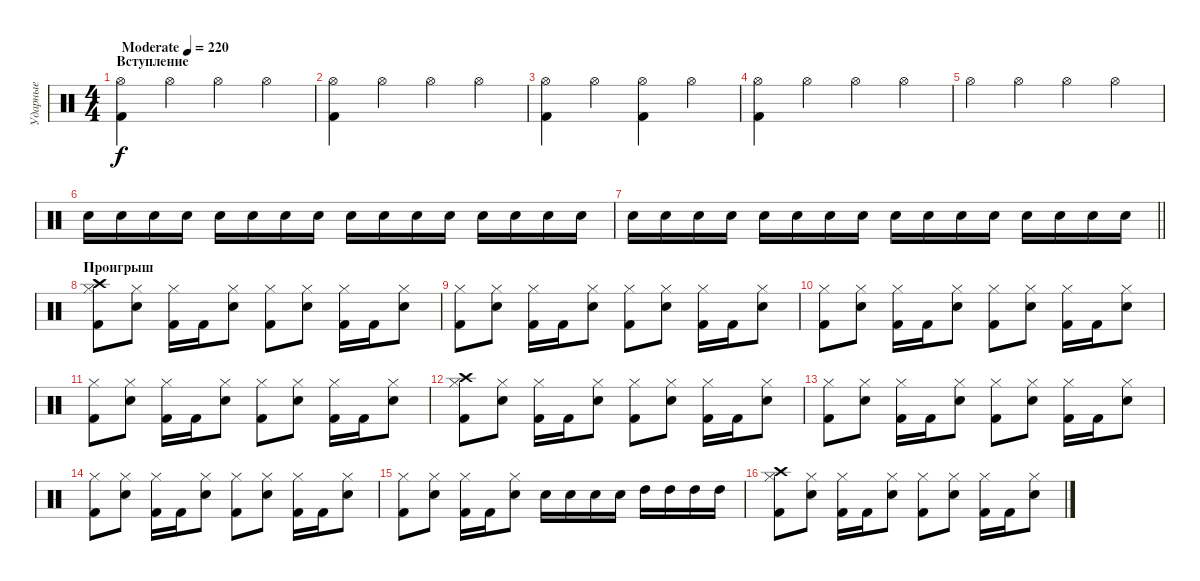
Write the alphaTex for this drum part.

\track ("Ударные" "Ударные") {instrument percussion}
\staff {score}
\articulation defaults
\ts (4 4)
\section ("" "Вступление")
\tempo (220 "Moderate")
\clef neutral
\ks c
("Kick (hit) 2" "Hi-Hat (open)").4{dy f} "Hi-Hat (open)".4 "Hi-Hat (open)".4 "Hi-Hat (open)".4 |
("Kick (hit) 2" "Hi-Hat (open)").4 "Hi-Hat (open)".4 "Hi-Hat (open)".4 "Hi-Hat (open)".4 |
("Kick (hit) 2" "Hi-Hat (open)").4 "Hi-Hat (open)".4 ("Kick (hit) 2" "Hi-Hat (open)").4 "Hi-Hat (open)".4 |
("Kick (hit) 2" "Hi-Hat (open)").4 "Hi-Hat (open)".4 "Hi-Hat (open)".4 "Hi-Hat (open)".4 |
"Hi-Hat (open)".4 "Hi-Hat (open)".4 "Hi-Hat (open)".4 "Hi-Hat (open)".4 |
"Snare (hit) 2".16 "Snare (hit) 2".16 "Snare (hit) 2".16 "Snare (hit) 2".16 "Snare (hit) 2".16 "Snare (hit) 2".16 "Snare (hit) 2".16 "Snare (hit) 2".16 "Snare (hit) 2".16 "Snare (hit) 2".16 "Snare (hit) 2".16 "Snare (hit) 2".16 "Snare (hit) 2".16 "Snare (hit) 2".16 "Snare (hit) 2".16 "Snare (hit) 2".16 |
\barLineRight lightlight "Snare (hit) 2".16 "Snare (hit) 2".16 "Snare (hit) 2".16 "Snare (hit) 2".16 "Snare (hit) 2".16 "Snare (hit) 2".16 "Snare (hit) 2".16 "Snare (hit) 2".16 "Snare (hit) 2".16 "Snare (hit) 2".16 "Snare (hit) 2".16 "Snare (hit) 2".16 "Snare (hit) 2".16 "Snare (hit) 2".16 "Snare (hit) 2".16 "Snare (hit) 2".16
|
\section ("" "Проигрыш")
("Kick (hit) 2" "Hi-Hat (closed)" "Crash high (hit)").8 ("Snare (hit) 2" "Hi-Hat (closed)").8 ("Kick (hit) 2" "Hi-Hat (closed)").16 "Kick (hit) 2".16 ("Snare (hit) 2" "Hi-Hat (closed)").8 ("Kick (hit) 2" "Hi-Hat (closed)").8 ("Snare (hit) 2" "Hi-Hat (closed)").8 ("Kick (hit) 2" "Hi-Hat (closed)").16 "Kick (hit) 2".16 ("Snare (hit) 2" "Hi-Hat (closed)").8 |
("Kick (hit) 2" "Hi-Hat (closed)").8 ("Snare (hit) 2" "Hi-Hat (closed)").8 ("Kick (hit) 2" "Hi-Hat (closed)").16 "Kick (hit) 2".16 ("Snare (hit) 2" "Hi-Hat (closed)").8 ("Kick (hit) 2" "Hi-Hat (closed)").8 ("Snare (hit) 2" "Hi-Hat (closed)").8 ("Kick (hit) 2" "Hi-Hat (closed)").16 "Kick (hit) 2".16 ("Snare (hit) 2" "Hi-Hat (closed)").8 |
("Kick (hit) 2" "Hi-Hat (closed)").8 ("Snare (hit) 2" "Hi-Hat (closed)").8 ("Kick (hit) 2" "Hi-Hat (closed)").16 "Kick (hit) 2".16 ("Snare (hit) 2" "Hi-Hat (closed)").8 ("Kick (hit) 2" "Hi-Hat (closed)").8 ("Snare (hit) 2" "Hi-Hat (closed)").8 ("Kick (hit) 2" "Hi-Hat (closed)").16 "Kick (hit) 2".16 ("Snare (hit) 2" "Hi-Hat (closed)").8 |
("Kick (hit) 2" "Hi-Hat (closed)").8 ("Snare (hit) 2" "Hi-Hat (closed)").8 ("Kick (hit) 2" "Hi-Hat (closed)").16 "Kick (hit) 2".16 ("Snare (hit) 2" "Hi-Hat (closed)").8 ("Kick (hit) 2" "Hi-Hat (closed)").8 ("Snare (hit) 2" "Hi-Hat (closed)").8 ("Kick (hit) 2" "Hi-Hat (closed)").16 "Kick (hit) 2".16 ("Snare (hit) 2" "Hi-Hat (closed)").8 |
("Kick (hit) 2" "Hi-Hat (closed)" "Crash high (hit)").8 ("Snare (hit) 2" "Hi-Hat (closed)").8 ("Kick (hit) 2" "Hi-Hat (closed)").16 "Kick (hit) 2".16 ("Snare (hit) 2" "Hi-Hat (closed)").8 ("Kick (hit) 2" "Hi-Hat (closed)").8 ("Snare (hit) 2" "Hi-Hat (closed)").8 ("Kick (hit) 2" "Hi-Hat (closed)").16 "Kick (hit) 2".16 ("Snare (hit) 2" "Hi-Hat (closed)").8 |
("Kick (hit) 2" "Hi-Hat (closed)").8 ("Snare (hit) 2" "Hi-Hat (closed)").8 ("Kick (hit) 2" "Hi-Hat (closed)").16 "Kick (hit) 2".16 ("Snare (hit) 2" "Hi-Hat (closed)").8 ("Kick (hit) 2" "Hi-Hat (closed)").8 ("Snare (hit) 2" "Hi-Hat (closed)").8 ("Kick (hit) 2" "Hi-Hat (closed)").16 "Kick (hit) 2".16 ("Snare (hit) 2" "Hi-Hat (closed)").8 |
("Kick (hit) 2" "Hi-Hat (closed)").8 ("Snare (hit) 2" "Hi-Hat (closed)").8 ("Kick (hit) 2" "Hi-Hat (closed)").16 "Kick (hit) 2".16 ("Snare (hit) 2" "Hi-Hat (closed)").8 ("Kick (hit) 2" "Hi-Hat (closed)").8 ("Snare (hit) 2" "Hi-Hat (closed)").8 ("Kick (hit) 2" "Hi-Hat (closed)").16 "Kick (hit) 2".16 ("Snare (hit) 2" "Hi-Hat (closed)").8 |
("Kick (hit) 2" "Hi-Hat (closed)").8 ("Snare (hit) 2" "Hi-Hat (closed)").8 ("Kick (hit) 2" "Hi-Hat (closed)").16 "Kick (hit) 2".16 ("Snare (hit) 2" "Hi-Hat (closed)").8 "Snare (hit) 2".16 "Snare (hit) 2".16 "Snare (hit) 2".16 "Snare (hit) 2".16 "High Tom (hit)".16 "High Tom (hit)".16 "High Tom (hit)".16 "High Tom (hit)".16 |
("Kick (hit) 2" "Hi-Hat (closed)" "Crash high (hit)").8 ("Snare (hit) 2" "Hi-Hat (closed)").8 ("Kick (hit) 2" "Hi-Hat (closed)").16 "Kick (hit) 2".16 ("Snare (hit) 2" "Hi-Hat (closed)").8 ("Kick (hit) 2" "Hi-Hat (closed)").8 ("Snare (hit) 2" "Hi-Hat (closed)").8 ("Kick (hit) 2" "Hi-Hat (closed)").16 "Kick (hit) 2".16 ("Snare (hit) 2" "Hi-Hat (closed)").8
